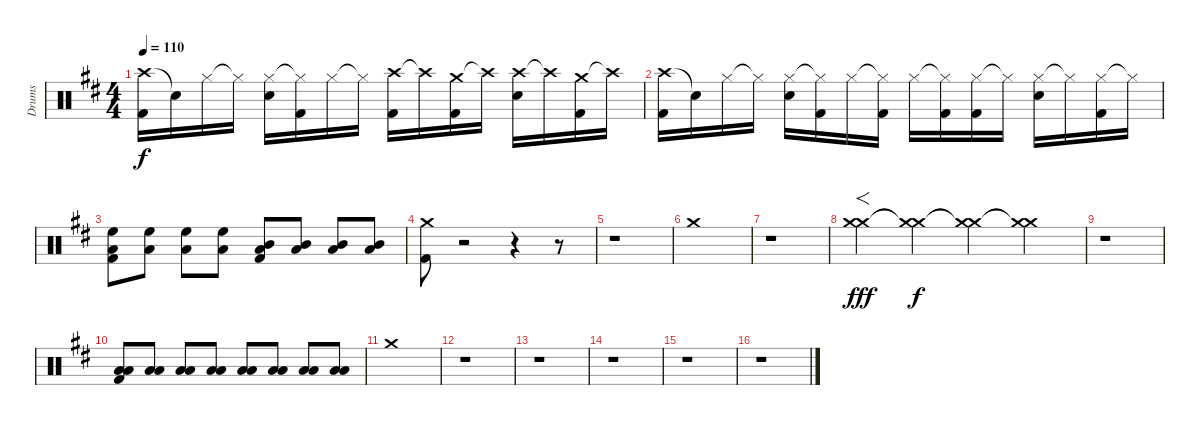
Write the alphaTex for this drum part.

\track ("Drums" "Drums") {instrument percussion}
\staff {score}
\articulation defaults
\ts (4 4)
\tempo 110
\clef neutral
\ks d
("Crash high (hit)" "Kick (hit) 2").16{dy f} "Snare (hit)"{t}.16 "Hi-Hat (closed)".16 "Hi-Hat (closed)"{t}.16 ("Hi-Hat (closed)" "Snare (hit) 2").16 ("Hi-Hat (closed)"{t} "Kick (hit) 2").16 "Hi-Hat (closed)".16 "Hi-Hat (closed)"{t}.16 ("Crash high (hit)" "Kick (hit) 2").16 "Crash high (hit)"{t}.16 ("Crash medium (hit)" "Kick (hit) 2").16 "Crash high (hit)"{t}.16 ("Crash high (hit)" "Snare (hit) 2").16 "Crash high (hit)"{t}.16 ("Crash medium (hit)" "Kick (hit) 2").16 "Crash high (hit)"{t}.16 |
("Crash high (hit)" "Kick (hit) 2").16 "Snare (hit)"{t}.16 "Hi-Hat (closed)".16 "Hi-Hat (closed)"{t}.16 ("Hi-Hat (closed)" "Snare (hit) 2").16 ("Hi-Hat (closed)"{t} "Kick (hit) 2").16 "Hi-Hat (closed)".16 ("Hi-Hat (closed)"{t} "Kick (hit) 2").16 "Hi-Hat (closed)".16 ("Hi-Hat (closed)"{t} "Kick (hit) 2").16 ("Hi-Hat (closed)" "Kick (hit) 2").16 "Hi-Hat (closed)"{t}.16 ("Hi-Hat (closed)" "Snare (hit) 2").16 "Hi-Hat (closed)"{t}.16 ("Hi-Hat (closed)" "Kick (hit) 2").16 "Hi-Hat (closed)"{t}.16 |
("High Floor Tom (hit)" "Low Floor Tom (hit)" "Kick (hit) 2").8 ("High Floor Tom (hit)" "Low Floor Tom (hit)").8 ("High Floor Tom (hit)" "Low Floor Tom (hit)").8 ("High Floor Tom (hit)" "Low Floor Tom (hit)").8 ("Mid Tom (hit)" "Low Tom (hit)" "Kick (hit) 2").8 ("Mid Tom (hit)" "Low Tom (hit)").8 ("Mid Tom (hit)" "Low Tom (hit)").8 ("Mid Tom (hit)" "Low Tom (hit)").8 |
("Crash medium (hit)" "Kick (hit) 2").8 r.2 r.4 r.8 |
r.1 |
"Crash medium (hit)".1 |
r.1 |
("Crash medium (hit)" "Crash medium (hit)").4{f dy fff} ("Crash medium (hit)"{t} "Crash medium (hit)"{t}).4{dy f} ("Crash medium (hit)"{t} "Crash medium (hit)"{t}).4 ("Crash medium (hit)"{t} "Crash medium (hit)"{t}).4 |
r.1 |
("Low Tom (hit)" "Low Floor Tom (hit)" "Kick (hit) 2").8 ("Low Tom (hit)" "Low Floor Tom (hit)").8 ("Low Tom (hit)" "Low Floor Tom (hit)").8 ("Low Tom (hit)" "Low Floor Tom (hit)").8 ("Low Tom (hit)" "Low Floor Tom (hit)").8 ("Low Tom (hit)" "Low Floor Tom (hit)").8 ("Low Tom (hit)" "Low Floor Tom (hit)").8 ("Low Tom (hit)" "Low Floor Tom (hit)").8 |
"Crash medium (hit)".1 |
r.1 |
r.1 |
r.1 |
r.1 |
r.1
